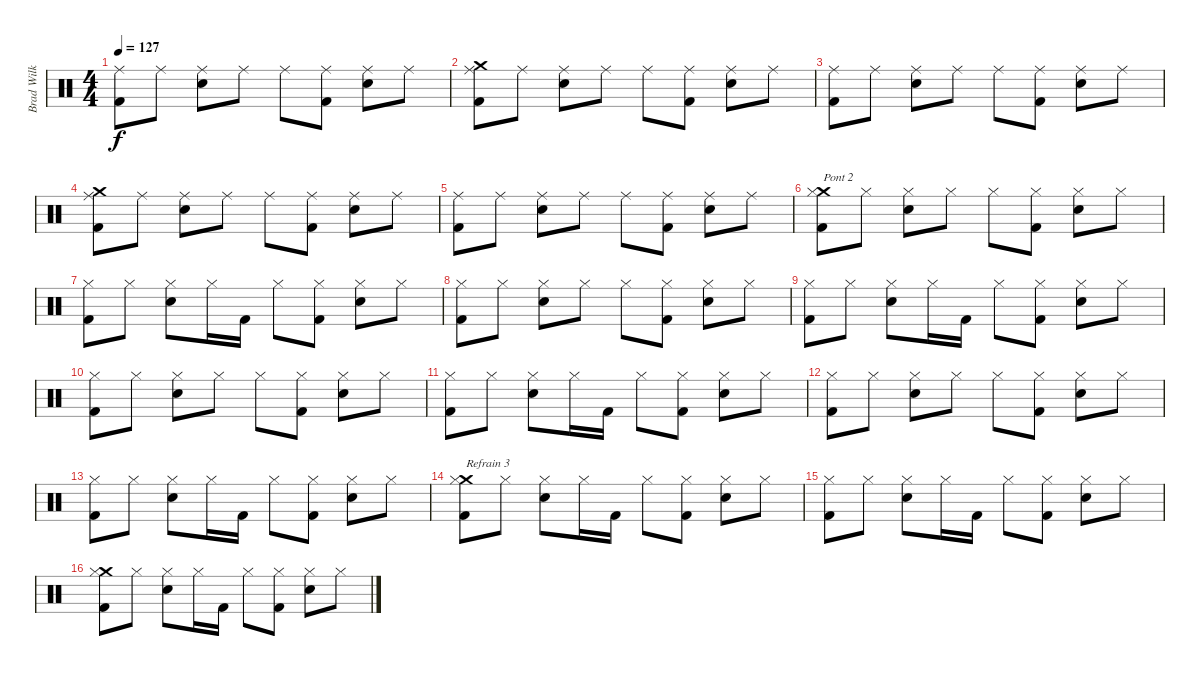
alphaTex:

\track ("Brad Wilk" "Brad Wilk") {instrument percussion}
\staff {score}
\articulation defaults
\ts (4 4)
\tempo 127
\clef neutral
\ks c
("Ride (middle)" "Kick (hit) 2").8{dy f} "Ride (middle)".8 ("Electric Snare (hit)" "Ride (middle)").8 "Ride (middle)".8 "Ride (middle)".8 ("Ride (middle)" "Kick (hit) 2").8 ("Electric Snare (hit)" "Ride (middle)").8 "Ride (middle)".8 |
("Crash medium (hit)" "Ride (middle)" "Kick (hit) 2").8 "Ride (middle)".8 ("Electric Snare (hit)" "Ride (middle)").8 "Ride (middle)".8 "Ride (middle)".8 ("Ride (middle)" "Kick (hit) 2").8 ("Electric Snare (hit)" "Ride (middle)").8 "Ride (middle)".8 |
("Ride (middle)" "Kick (hit) 2").8 "Ride (middle)".8 ("Electric Snare (hit)" "Ride (middle)").8 "Ride (middle)".8 "Ride (middle)".8 ("Ride (middle)" "Kick (hit) 2").8 ("Electric Snare (hit)" "Ride (middle)").8 "Ride (middle)".8 |
("Crash medium (hit)" "Ride (middle)" "Kick (hit) 2").8 "Ride (middle)".8 ("Electric Snare (hit)" "Ride (middle)").8 "Ride (middle)".8 "Ride (middle)".8 ("Ride (middle)" "Kick (hit) 2").8 ("Electric Snare (hit)" "Ride (middle)").8 "Ride (middle)".8 |
("Ride (middle)" "Kick (hit) 2").8 "Ride (middle)".8 ("Electric Snare (hit)" "Ride (middle)").8 "Ride (middle)".8 "Ride (middle)".8 ("Ride (middle)" "Kick (hit) 2").8 ("Electric Snare (hit)" "Ride (middle)").8 "Ride (middle)".8 |
("Crash medium (hit)" "Hi-Hat (closed)" "Kick (hit) 2").8{txt "Pont 2"} "Hi-Hat (closed)".8 ("Electric Snare (hit)" "Hi-Hat (closed)").8 "Hi-Hat (closed)".8 "Hi-Hat (closed)".8 ("Hi-Hat (closed)" "Kick (hit) 2").8 ("Electric Snare (hit)" "Hi-Hat (closed)").8 "Hi-Hat (closed)".8 |
("Hi-Hat (closed)" "Kick (hit) 2").8 "Hi-Hat (closed)".8 ("Electric Snare (hit)" "Hi-Hat (closed)").8 "Hi-Hat (closed)".16 "Kick (hit) 2".16 "Hi-Hat (closed)".8 ("Hi-Hat (closed)" "Kick (hit) 2").8 ("Electric Snare (hit)" "Hi-Hat (closed)").8 "Hi-Hat (closed)".8 |
("Hi-Hat (closed)" "Kick (hit) 2").8 "Hi-Hat (closed)".8 ("Electric Snare (hit)" "Hi-Hat (closed)").8 "Hi-Hat (closed)".8 "Hi-Hat (closed)".8 ("Hi-Hat (closed)" "Kick (hit) 2").8 ("Electric Snare (hit)" "Hi-Hat (closed)").8 "Hi-Hat (closed)".8 |
("Hi-Hat (closed)" "Kick (hit) 2").8 "Hi-Hat (closed)".8 ("Electric Snare (hit)" "Hi-Hat (closed)").8 "Hi-Hat (closed)".16 "Kick (hit) 2".16 "Hi-Hat (closed)".8 ("Hi-Hat (closed)" "Kick (hit) 2").8 ("Electric Snare (hit)" "Hi-Hat (closed)").8 "Hi-Hat (closed)".8 |
("Hi-Hat (closed)" "Kick (hit) 2").8 "Hi-Hat (closed)".8 ("Electric Snare (hit)" "Hi-Hat (closed)").8 "Hi-Hat (closed)".8 "Hi-Hat (closed)".8 ("Hi-Hat (closed)" "Kick (hit) 2").8 ("Electric Snare (hit)" "Hi-Hat (closed)").8 "Hi-Hat (closed)".8 |
("Hi-Hat (closed)" "Kick (hit) 2").8 "Hi-Hat (closed)".8 ("Electric Snare (hit)" "Hi-Hat (closed)").8 "Hi-Hat (closed)".16 "Kick (hit) 2".16 "Hi-Hat (closed)".8 ("Hi-Hat (closed)" "Kick (hit) 2").8 ("Electric Snare (hit)" "Hi-Hat (closed)").8 "Hi-Hat (closed)".8 |
("Hi-Hat (closed)" "Kick (hit) 2").8 "Hi-Hat (closed)".8 ("Electric Snare (hit)" "Hi-Hat (closed)").8 "Hi-Hat (closed)".8 "Hi-Hat (closed)".8 ("Hi-Hat (closed)" "Kick (hit) 2").8 ("Electric Snare (hit)" "Hi-Hat (closed)").8 "Hi-Hat (closed)".8 |
("Hi-Hat (closed)" "Kick (hit) 2").8 "Hi-Hat (closed)".8 ("Electric Snare (hit)" "Hi-Hat (closed)").8 "Hi-Hat (closed)".16 "Kick (hit) 2".16 "Hi-Hat (closed)".8 ("Hi-Hat (closed)" "Kick (hit) 2").8 ("Electric Snare (hit)" "Hi-Hat (closed)").8 "Hi-Hat (closed)".8 |
("Crash medium (hit)" "Hi-Hat (closed)" "Kick (hit) 2").8{txt "Refrain 3"} "Hi-Hat (closed)".8 ("Electric Snare (hit)" "Hi-Hat (closed)").8 "Hi-Hat (closed)".16 "Kick (hit) 2".16 "Hi-Hat (closed)".8 ("Hi-Hat (closed)" "Kick (hit) 2").8 ("Electric Snare (hit)" "Hi-Hat (closed)").8 "Hi-Hat (closed)".8 |
("Hi-Hat (closed)" "Kick (hit) 2").8 "Hi-Hat (closed)".8 ("Electric Snare (hit)" "Hi-Hat (closed)").8 "Hi-Hat (closed)".16 "Kick (hit) 2".16 "Hi-Hat (closed)".8 ("Hi-Hat (closed)" "Kick (hit) 2").8 ("Electric Snare (hit)" "Hi-Hat (closed)").8 "Hi-Hat (closed)".8 |
("Crash medium (hit)" "Hi-Hat (closed)" "Kick (hit) 2").8 "Hi-Hat (closed)".8 ("Electric Snare (hit)" "Hi-Hat (closed)").8 "Hi-Hat (closed)".16 "Kick (hit) 2".16 "Hi-Hat (closed)".8 ("Hi-Hat (closed)" "Kick (hit) 2").8 ("Electric Snare (hit)" "Hi-Hat (closed)").8 "Hi-Hat (closed)".8
